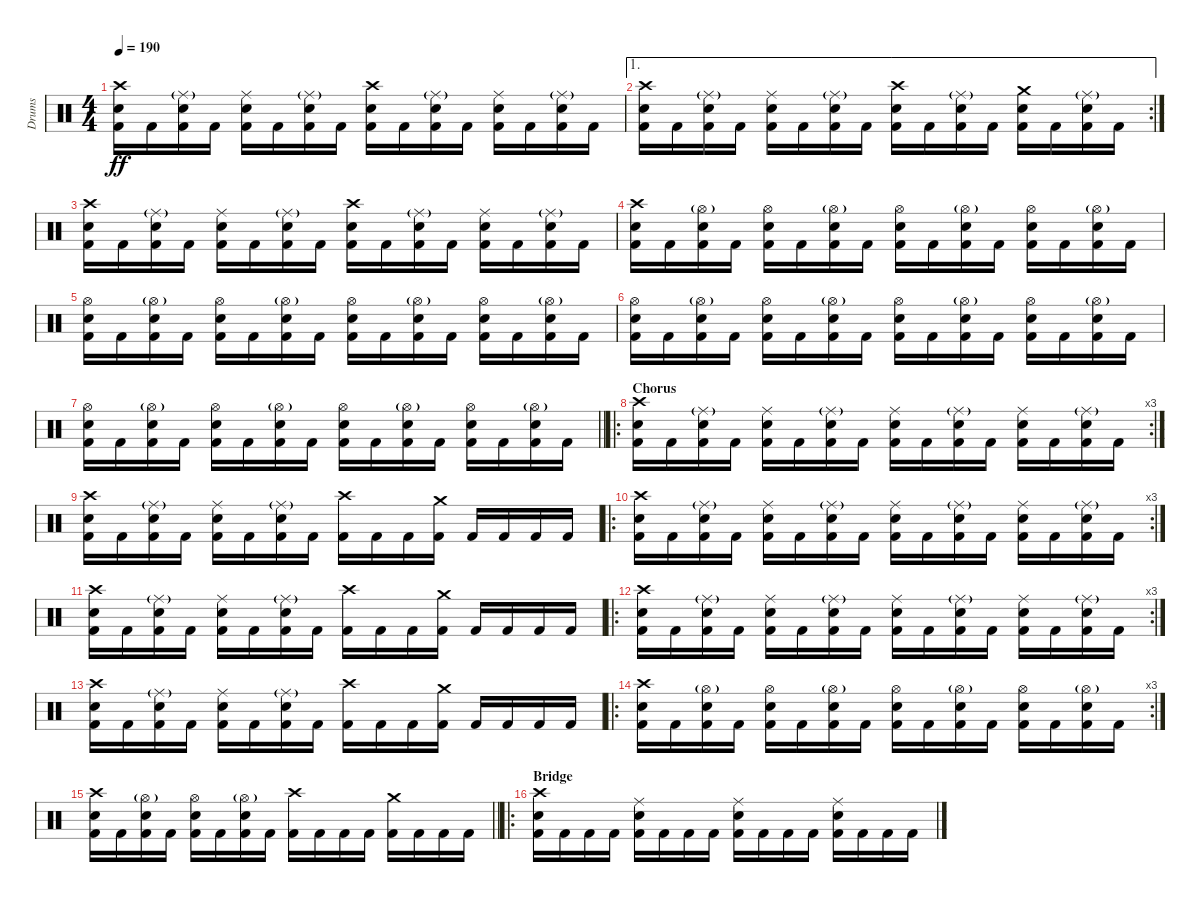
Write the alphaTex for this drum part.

\track ("Drums" "Drums") {instrument percussion}
\staff {score}
\articulation defaults
\ts (4 4)
\tempo 190
\clef neutral
\ks c
("Crash high (hit)" "Electric Snare (hit)" "Kick (hit) 2").16{dy ff} "Kick (hit) 2".16 ("Ride (middle)"{g} "Electric Snare (hit)" "Kick (hit) 2").16 "Kick (hit) 2".16 ("Ride (middle)" "Electric Snare (hit)" "Kick (hit) 2").16 "Kick (hit) 2".16 ("Ride (middle)"{g} "Electric Snare (hit)" "Kick (hit) 2").16 "Kick (hit) 2".16 ("Crash high (hit)" "Electric Snare (hit)" "Kick (hit) 2").16 "Kick (hit) 2".16 ("Ride (middle)"{g} "Electric Snare (hit)" "Kick (hit) 2").16 "Kick (hit) 2".16 ("Ride (middle)" "Electric Snare (hit)" "Kick (hit) 2").16 "Kick (hit) 2".16 ("Ride (middle)"{g} "Electric Snare (hit)" "Kick (hit) 2").16 "Kick (hit) 2".16 |
\ae 1
\rc 2
("Crash high (hit)" "Electric Snare (hit)" "Kick (hit) 2").16 "Kick (hit) 2".16 ("Ride (middle)"{g} "Electric Snare (hit)" "Kick (hit) 2").16 "Kick (hit) 2".16 ("Ride (middle)" "Electric Snare (hit)" "Kick (hit) 2").16 "Kick (hit) 2".16 ("Ride (middle)"{g} "Electric Snare (hit)" "Kick (hit) 2").16 "Kick (hit) 2".16 ("Crash high (hit)" "Electric Snare (hit)" "Kick (hit) 2").16 "Kick (hit) 2".16 ("Ride (middle)"{g} "Electric Snare (hit)" "Kick (hit) 2").16 "Kick (hit) 2".16 ("Crash medium (hit)" "Electric Snare (hit)" "Kick (hit) 2").16 "Kick (hit) 2".16 ("Ride (middle)"{g} "Electric Snare (hit)" "Kick (hit) 2").16 "Kick (hit) 2".16 |
("Crash high (hit)" "Electric Snare (hit)" "Kick (hit) 2").16 "Kick (hit) 2".16 ("Ride (middle)"{g} "Electric Snare (hit)" "Kick (hit) 2").16 "Kick (hit) 2".16 ("Ride (middle)" "Electric Snare (hit)" "Kick (hit) 2").16 "Kick (hit) 2".16 ("Ride (middle)"{g} "Electric Snare (hit)" "Kick (hit) 2").16 "Kick (hit) 2".16 ("Crash high (hit)" "Electric Snare (hit)" "Kick (hit) 2").16 "Kick (hit) 2".16 ("Ride (middle)"{g} "Electric Snare (hit)" "Kick (hit) 2").16 "Kick (hit) 2".16 ("Ride (middle)" "Electric Snare (hit)" "Kick (hit) 2").16 "Kick (hit) 2".16 ("Ride (middle)"{g} "Electric Snare (hit)" "Kick (hit) 2").16 "Kick (hit) 2".16 |
("Crash high (hit)" "Electric Snare (hit)" "Kick (hit) 2").16 "Kick (hit) 2".16 ("Hi-Hat (open)"{g} "Electric Snare (hit)" "Kick (hit) 2").16 "Kick (hit) 2".16 ("Hi-Hat (open)" "Electric Snare (hit)" "Kick (hit) 2").16 "Kick (hit) 2".16 ("Hi-Hat (open)"{g} "Electric Snare (hit)" "Kick (hit) 2").16 "Kick (hit) 2".16 ("Hi-Hat (open)" "Electric Snare (hit)" "Kick (hit) 2").16 "Kick (hit) 2".16 ("Hi-Hat (open)"{g} "Electric Snare (hit)" "Kick (hit) 2").16 "Kick (hit) 2".16 ("Hi-Hat (open)" "Electric Snare (hit)" "Kick (hit) 2").16 "Kick (hit) 2".16 ("Hi-Hat (open)"{g} "Electric Snare (hit)" "Kick (hit) 2").16 "Kick (hit) 2".16 |
("Hi-Hat (open)" "Electric Snare (hit)" "Kick (hit) 2").16 "Kick (hit) 2".16 ("Hi-Hat (open)"{g} "Electric Snare (hit)" "Kick (hit) 2").16 "Kick (hit) 2".16 ("Hi-Hat (open)" "Electric Snare (hit)" "Kick (hit) 2").16 "Kick (hit) 2".16 ("Hi-Hat (open)"{g} "Electric Snare (hit)" "Kick (hit) 2").16 "Kick (hit) 2".16 ("Hi-Hat (open)" "Electric Snare (hit)" "Kick (hit) 2").16 "Kick (hit) 2".16 ("Hi-Hat (open)"{g} "Electric Snare (hit)" "Kick (hit) 2").16 "Kick (hit) 2".16 ("Hi-Hat (open)" "Electric Snare (hit)" "Kick (hit) 2").16 "Kick (hit) 2".16 ("Hi-Hat (open)"{g} "Electric Snare (hit)" "Kick (hit) 2").16 "Kick (hit) 2".16 |
("Hi-Hat (open)" "Electric Snare (hit)" "Kick (hit) 2").16 "Kick (hit) 2".16 ("Hi-Hat (open)"{g} "Electric Snare (hit)" "Kick (hit) 2").16 "Kick (hit) 2".16 ("Hi-Hat (open)" "Electric Snare (hit)" "Kick (hit) 2").16 "Kick (hit) 2".16 ("Hi-Hat (open)"{g} "Electric Snare (hit)" "Kick (hit) 2").16 "Kick (hit) 2".16 ("Hi-Hat (open)" "Electric Snare (hit)" "Kick (hit) 2").16 "Kick (hit) 2".16 ("Hi-Hat (open)"{g} "Electric Snare (hit)" "Kick (hit) 2").16 "Kick (hit) 2".16 ("Hi-Hat (open)" "Electric Snare (hit)" "Kick (hit) 2").16 "Kick (hit) 2".16 ("Hi-Hat (open)"{g} "Electric Snare (hit)" "Kick (hit) 2").16 "Kick (hit) 2".16 |
\barLineRight lightlight
("Hi-Hat (open)" "Electric Snare (hit)" "Kick (hit) 2").16 "Kick (hit) 2".16 ("Hi-Hat (open)"{g} "Electric Snare (hit)" "Kick (hit) 2").16 "Kick (hit) 2".16 ("Hi-Hat (open)" "Electric Snare (hit)" "Kick (hit) 2").16 "Kick (hit) 2".16 ("Hi-Hat (open)"{g} "Electric Snare (hit)" "Kick (hit) 2").16 "Kick (hit) 2".16 ("Hi-Hat (open)" "Electric Snare (hit)" "Kick (hit) 2").16 "Kick (hit) 2".16 ("Hi-Hat (open)"{g} "Electric Snare (hit)" "Kick (hit) 2").16 "Kick (hit) 2".16 ("Hi-Hat (open)" "Electric Snare (hit)" "Kick (hit) 2").16 "Kick (hit) 2".16 ("Hi-Hat (open)"{g} "Electric Snare (hit)" "Kick (hit) 2").16 "Kick (hit) 2".16 |
\ro
\rc 3
\section ("" "Chorus")
("Crash high (hit)" "Electric Snare (hit)" "Kick (hit) 2").16 "Kick (hit) 2".16 ("Ride (middle)"{g} "Electric Snare (hit)" "Kick (hit) 2").16 "Kick (hit) 2".16 ("Ride (middle)" "Electric Snare (hit)" "Kick (hit) 2").16 "Kick (hit) 2".16 ("Ride (middle)"{g} "Electric Snare (hit)" "Kick (hit) 2").16 "Kick (hit) 2".16 ("Ride (middle)" "Electric Snare (hit)" "Kick (hit) 2").16 "Kick (hit) 2".16 ("Ride (middle)"{g} "Electric Snare (hit)" "Kick (hit) 2").16 "Kick (hit) 2".16 ("Ride (middle)" "Electric Snare (hit)" "Kick (hit) 2").16 "Kick (hit) 2".16 ("Ride (middle)"{g} "Electric Snare (hit)" "Kick (hit) 2").16 "Kick (hit) 2".16 |
("Crash high (hit)" "Electric Snare (hit)" "Kick (hit) 2").16 "Kick (hit) 2".16 ("Ride (middle)"{g} "Electric Snare (hit)" "Kick (hit) 2").16 "Kick (hit) 2".16 ("Ride (middle)" "Electric Snare (hit)" "Kick (hit) 2").16 "Kick (hit) 2".16 ("Ride (middle)"{g} "Electric Snare (hit)" "Kick (hit) 2").16 "Kick (hit) 2".16 ("Crash high (hit)" "Kick (hit) 2").16 "Kick (hit) 2".16 "Kick (hit) 2".16 ("Crash medium (hit)" "Kick (hit) 2").16 "Kick (hit) 2".16 "Kick (hit) 2".16 "Kick (hit) 2".16 "Kick (hit) 2".16 |
\ro
\rc 3
("Crash high (hit)" "Electric Snare (hit)" "Kick (hit) 2").16 "Kick (hit) 2".16 ("Ride (middle)"{g} "Electric Snare (hit)" "Kick (hit) 2").16 "Kick (hit) 2".16 ("Ride (middle)" "Electric Snare (hit)" "Kick (hit) 2").16 "Kick (hit) 2".16 ("Ride (middle)"{g} "Electric Snare (hit)" "Kick (hit) 2").16 "Kick (hit) 2".16 ("Ride (middle)" "Electric Snare (hit)" "Kick (hit) 2").16 "Kick (hit) 2".16 ("Ride (middle)"{g} "Electric Snare (hit)" "Kick (hit) 2").16 "Kick (hit) 2".16 ("Ride (middle)" "Electric Snare (hit)" "Kick (hit) 2").16 "Kick (hit) 2".16 ("Ride (middle)"{g} "Electric Snare (hit)" "Kick (hit) 2").16 "Kick (hit) 2".16 |
("Crash high (hit)" "Electric Snare (hit)" "Kick (hit) 2").16 "Kick (hit) 2".16 ("Ride (middle)"{g} "Electric Snare (hit)" "Kick (hit) 2").16 "Kick (hit) 2".16 ("Ride (middle)" "Electric Snare (hit)" "Kick (hit) 2").16 "Kick (hit) 2".16 ("Ride (middle)"{g} "Electric Snare (hit)" "Kick (hit) 2").16 "Kick (hit) 2".16 ("Crash high (hit)" "Kick (hit) 2").16 "Kick (hit) 2".16 "Kick (hit) 2".16 ("Crash medium (hit)" "Kick (hit) 2").16 "Kick (hit) 2".16 "Kick (hit) 2".16 "Kick (hit) 2".16 "Kick (hit) 2".16 |
\ro
\rc 3
("Crash high (hit)" "Electric Snare (hit)" "Kick (hit) 2").16 "Kick (hit) 2".16 ("Ride (middle)"{g} "Electric Snare (hit)" "Kick (hit) 2").16 "Kick (hit) 2".16 ("Ride (middle)" "Electric Snare (hit)" "Kick (hit) 2").16 "Kick (hit) 2".16 ("Ride (middle)"{g} "Electric Snare (hit)" "Kick (hit) 2").16 "Kick (hit) 2".16 ("Ride (middle)" "Electric Snare (hit)" "Kick (hit) 2").16 "Kick (hit) 2".16 ("Ride (middle)"{g} "Electric Snare (hit)" "Kick (hit) 2").16 "Kick (hit) 2".16 ("Ride (middle)" "Electric Snare (hit)" "Kick (hit) 2").16 "Kick (hit) 2".16 ("Ride (middle)"{g} "Electric Snare (hit)" "Kick (hit) 2").16 "Kick (hit) 2".16 |
("Crash high (hit)" "Electric Snare (hit)" "Kick (hit) 2").16 "Kick (hit) 2".16 ("Ride (middle)"{g} "Electric Snare (hit)" "Kick (hit) 2").16 "Kick (hit) 2".16 ("Ride (middle)" "Electric Snare (hit)" "Kick (hit) 2").16 "Kick (hit) 2".16 ("Ride (middle)"{g} "Electric Snare (hit)" "Kick (hit) 2").16 "Kick (hit) 2".16 ("Crash high (hit)" "Kick (hit) 2").16 "Kick (hit) 2".16 "Kick (hit) 2".16 ("Crash medium (hit)" "Kick (hit) 2").16 "Kick (hit) 2".16 "Kick (hit) 2".16 "Kick (hit) 2".16 "Kick (hit) 2".16 |
\ro
\rc 3
("Crash high (hit)" "Electric Snare (hit)" "Kick (hit) 2").16 "Kick (hit) 2".16 ("Hi-Hat (open)"{g} "Electric Snare (hit)" "Kick (hit) 2").16 "Kick (hit) 2".16 ("Hi-Hat (open)" "Electric Snare (hit)" "Kick (hit) 2").16 "Kick (hit) 2".16 ("Hi-Hat (open)"{g} "Electric Snare (hit)" "Kick (hit) 2").16 "Kick (hit) 2".16 ("Hi-Hat (open)" "Electric Snare (hit)" "Kick (hit) 2").16 "Kick (hit) 2".16 ("Hi-Hat (open)"{g} "Electric Snare (hit)" "Kick (hit) 2").16 "Kick (hit) 2".16 ("Hi-Hat (open)" "Electric Snare (hit)" "Kick (hit) 2").16 "Kick (hit) 2".16 ("Hi-Hat (open)"{g} "Electric Snare (hit)" "Kick (hit) 2").16 "Kick (hit) 2".16 |
\barLineRight lightlight
("Crash high (hit)" "Electric Snare (hit)" "Kick (hit) 2").16 "Kick (hit) 2".16 ("Hi-Hat (open)"{g} "Electric Snare (hit)" "Kick (hit) 2").16 "Kick (hit) 2".16 ("Hi-Hat (open)" "Electric Snare (hit)" "Kick (hit) 2").16 "Kick (hit) 2".16 ("Hi-Hat (open)"{g} "Electric Snare (hit)" "Kick (hit) 2").16 "Kick (hit) 2".16 ("Crash high (hit)" "Kick (hit) 2").16 "Kick (hit) 2".16 "Kick (hit) 2".16 "Kick (hit) 2".16 ("Crash medium (hit)" "Kick (hit) 2").16 "Kick (hit) 2".16 "Kick (hit) 2".16 "Kick (hit) 2".16 |
\ro
\section ("" "Bridge")
("Crash high (hit)" "Electric Snare (hit)" "Kick (hit) 2").16 "Kick (hit) 2".16 "Kick (hit) 2".16 "Kick (hit) 2".16 ("Ride (middle)" "Electric Snare (hit)" "Kick (hit) 2").16 "Kick (hit) 2".16 "Kick (hit) 2".16 "Kick (hit) 2".16 ("Ride (middle)" "Electric Snare (hit)" "Kick (hit) 2").16 "Kick (hit) 2".16 "Kick (hit) 2".16 "Kick (hit) 2".16 ("Ride (middle)" "Electric Snare (hit)" "Kick (hit) 2").16 "Kick (hit) 2".16 "Kick (hit) 2".16 "Kick (hit) 2".16
